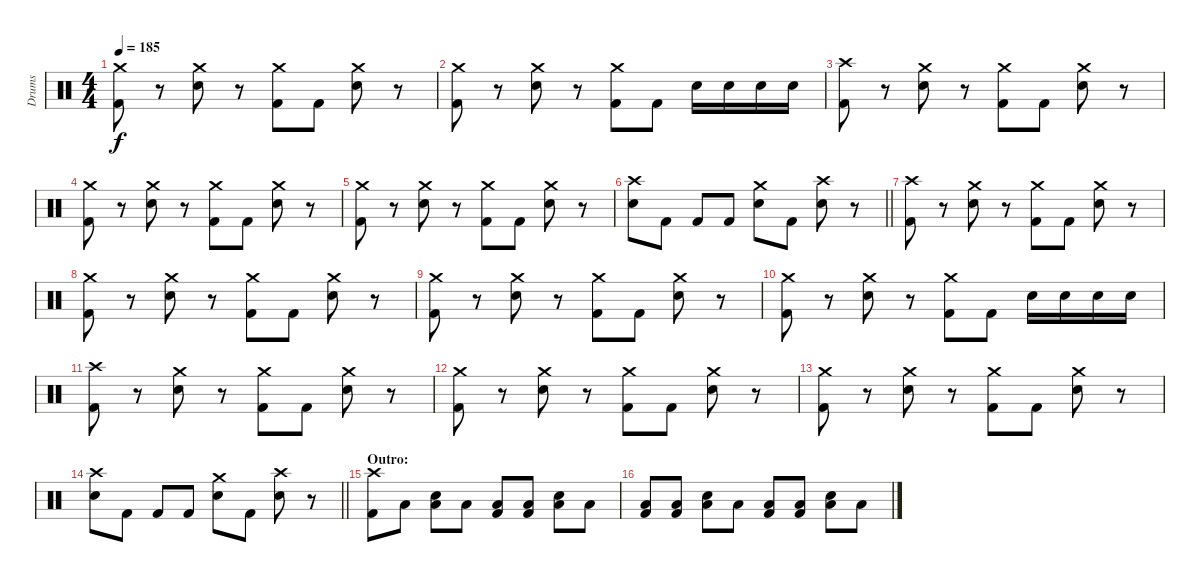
\track ("Drums" "Drums") {instrument percussion}
\staff {score}
\articulation defaults
\ts (4 4)
\tempo 185
\clef neutral
\ks c
("Crash medium (hit)" "Kick (hit) 2").8{dy f} r.8 ("Crash medium (hit)" "Snare (hit) 2").8 r.8 ("Crash medium (hit)" "Kick (hit) 2").8 "Kick (hit) 2".8 ("Crash medium (hit)" "Snare (hit) 2").8 r.8 |
("Crash medium (hit)" "Kick (hit) 2").8 r.8 ("Crash medium (hit)" "Snare (hit) 2").8 r.8 ("Crash medium (hit)" "Kick (hit) 2").8 "Kick (hit) 2".8 "Snare (hit) 2".16 "Snare (hit) 2".16 "Snare (hit) 2".16 "Snare (hit) 2".16 |
("Crash high (hit)" "Kick (hit) 2").8 r.8 ("Crash medium (hit)" "Snare (hit) 2").8 r.8 ("Crash medium (hit)" "Kick (hit) 2").8 "Kick (hit) 2".8 ("Crash medium (hit)" "Snare (hit) 2").8 r.8 |
("Crash medium (hit)" "Kick (hit) 2").8 r.8 ("Crash medium (hit)" "Snare (hit) 2").8 r.8 ("Crash medium (hit)" "Kick (hit) 2").8 "Kick (hit) 2".8 ("Crash medium (hit)" "Snare (hit) 2").8 r.8 |
("Crash medium (hit)" "Kick (hit) 2").8 r.8 ("Crash medium (hit)" "Snare (hit) 2").8 r.8 ("Crash medium (hit)" "Kick (hit) 2").8 "Kick (hit) 2".8 ("Crash medium (hit)" "Snare (hit) 2").8 r.8 |
\barLineRight lightlight
("Crash high (hit)" "Snare (hit) 2").8 "Kick (hit) 2".8 "Kick (hit) 2".8 "Kick (hit) 2".8 ("Crash medium (hit)" "Snare (hit) 2").8 "Kick (hit) 2".8 ("Crash high (hit)" "Snare (hit) 2").8 r.8 |
("Crash high (hit)" "Kick (hit) 2").8 r.8 ("Crash medium (hit)" "Snare (hit) 2").8 r.8 ("Crash medium (hit)" "Kick (hit) 2").8 "Kick (hit) 2".8 ("Crash medium (hit)" "Snare (hit) 2").8 r.8 |
("Crash medium (hit)" "Kick (hit) 2").8 r.8 ("Crash medium (hit)" "Snare (hit) 2").8 r.8 ("Crash medium (hit)" "Kick (hit) 2").8 "Kick (hit) 2".8 ("Crash medium (hit)" "Snare (hit) 2").8 r.8 |
("Crash medium (hit)" "Kick (hit) 2").8 r.8 ("Crash medium (hit)" "Snare (hit) 2").8 r.8 ("Crash medium (hit)" "Kick (hit) 2").8 "Kick (hit) 2".8 ("Crash medium (hit)" "Snare (hit) 2").8 r.8 |
("Crash medium (hit)" "Kick (hit) 2").8 r.8 ("Crash medium (hit)" "Snare (hit) 2").8 r.8 ("Crash medium (hit)" "Kick (hit) 2").8 "Kick (hit) 2".8 "Snare (hit) 2".16 "Snare (hit) 2".16 "Snare (hit) 2".16 "Snare (hit) 2".16 |
("Crash high (hit)" "Kick (hit) 2").8 r.8 ("Crash medium (hit)" "Snare (hit) 2").8 r.8 ("Crash medium (hit)" "Kick (hit) 2").8 "Kick (hit) 2".8 ("Crash medium (hit)" "Snare (hit) 2").8 r.8 |
("Crash medium (hit)" "Kick (hit) 2").8 r.8 ("Crash medium (hit)" "Snare (hit) 2").8 r.8 ("Crash medium (hit)" "Kick (hit) 2").8 "Kick (hit) 2".8 ("Crash medium (hit)" "Snare (hit) 2").8 r.8 |
("Crash medium (hit)" "Kick (hit) 2").8 r.8 ("Crash medium (hit)" "Snare (hit) 2").8 r.8 ("Crash medium (hit)" "Kick (hit) 2").8 "Kick (hit) 2".8 ("Crash medium (hit)" "Snare (hit) 2").8 r.8 |
\barLineRight lightlight
("Crash high (hit)" "Snare (hit) 2").8 "Kick (hit) 2".8 "Kick (hit) 2".8 "Kick (hit) 2".8 ("Crash medium (hit)" "Snare (hit) 2").8 "Kick (hit) 2".8 ("Crash high (hit)" "Snare (hit) 2").8 r.8 |
\section ("" "Outro:")
("Crash high (hit)" "Kick (hit) 2").8 "Low Tom (hit)".8 ("Low Tom (hit)" "Snare (hit) 2").8 "Low Tom (hit)".8 ("Low Tom (hit)" "Kick (hit) 2").8 ("Low Tom (hit)" "Kick (hit) 2").8 ("Low Tom (hit)" "Snare (hit) 2").8 "Low Tom (hit)".8 |
("Low Tom (hit)" "Kick (hit) 2").8 ("Low Tom (hit)" "Kick (hit) 2").8 ("Low Tom (hit)" "Snare (hit) 2").8 "Low Tom (hit)".8 ("Low Tom (hit)" "Kick (hit) 2").8 ("Low Tom (hit)" "Kick (hit) 2").8 ("Low Tom (hit)" "Snare (hit) 2").8 "Low Tom (hit)".8
